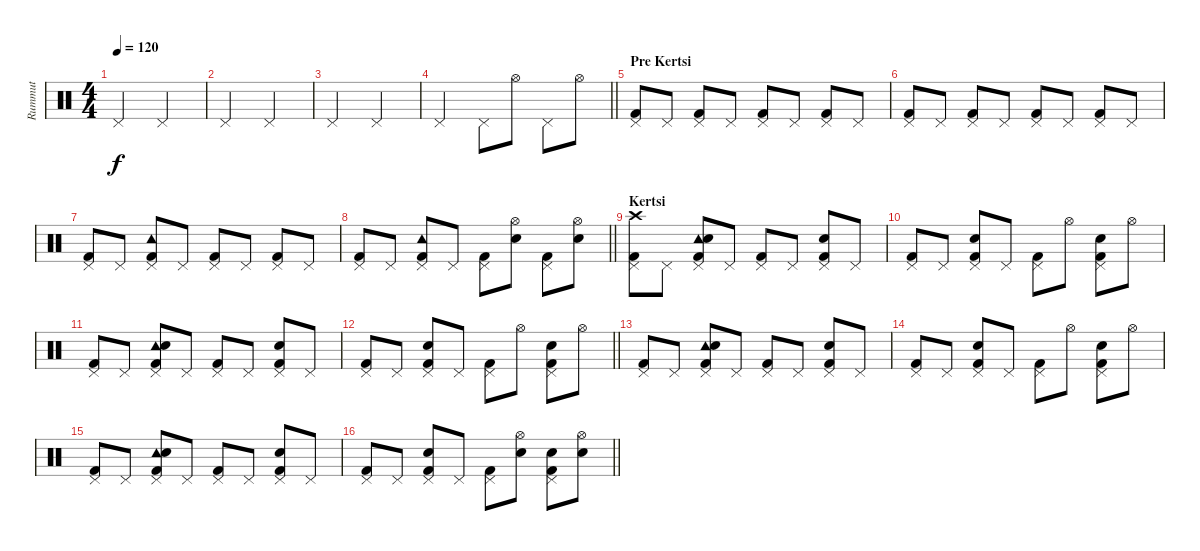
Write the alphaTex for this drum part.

\track ("Rummut" "Rummut") {instrument percussion}
\staff {score}
\articulation defaults
\ts (4 4)
\tempo 120
\clef neutral
\ks c "Pedal Hi-Hat (hit)".2{dy f} "Pedal Hi-Hat (hit)".2
|
"Pedal Hi-Hat (hit)".2 "Pedal Hi-Hat (hit)".2 |
"Pedal Hi-Hat (hit)".2 "Pedal Hi-Hat (hit)".2 |
\barLineRight lightlight "Pedal Hi-Hat (hit)".2 "Pedal Hi-Hat (hit)".8 "Hi-Hat (open)".8 "Pedal Hi-Hat (hit)".8 "Hi-Hat (open)".8
|
\section ("" "Pre Kertsi")
("Pedal Hi-Hat (hit)" "Kick (hit) 2").8 "Pedal Hi-Hat (hit)".8 ("Pedal Hi-Hat (hit)" "Kick (hit) 2").8 "Pedal Hi-Hat (hit)".8 ("Pedal Hi-Hat (hit)" "Kick (hit) 2").8 "Pedal Hi-Hat (hit)".8 ("Pedal Hi-Hat (hit)" "Kick (hit) 2").8 "Pedal Hi-Hat (hit)".8 |
("Pedal Hi-Hat (hit)" "Kick (hit) 2").8 "Pedal Hi-Hat (hit)".8 ("Pedal Hi-Hat (hit)" "Kick (hit) 2").8 "Pedal Hi-Hat (hit)".8 ("Pedal Hi-Hat (hit)" "Kick (hit) 2").8 "Pedal Hi-Hat (hit)".8 ("Pedal Hi-Hat (hit)" "Kick (hit) 2").8 "Pedal Hi-Hat (hit)".8 |
("Pedal Hi-Hat (hit)" "Kick (hit) 2").8 "Pedal Hi-Hat (hit)".8 ("Tambourine (hit)" "Pedal Hi-Hat (hit)" "Kick (hit) 2").8 "Pedal Hi-Hat (hit)".8 ("Pedal Hi-Hat (hit)" "Kick (hit) 2").8 "Pedal Hi-Hat (hit)".8 ("Pedal Hi-Hat (hit)" "Kick (hit) 2").8 "Pedal Hi-Hat (hit)".8 |
\barLineRight lightlight
("Pedal Hi-Hat (hit)" "Kick (hit) 2").8 "Pedal Hi-Hat (hit)".8 ("Tambourine (hit)" "Pedal Hi-Hat (hit)" "Kick (hit) 2").8 "Pedal Hi-Hat (hit)".8 ("Pedal Hi-Hat (hit)" "Kick (hit) 2").8 ("Hi-Hat (open)" "Snare (hit) 2").8 ("Pedal Hi-Hat (hit)" "Kick (hit) 2").8 ("Hi-Hat (open)" "Snare (hit) 2").8 |
\section ("" "Kertsi")
("Crash high (hit)" "Pedal Hi-Hat (hit)" "Kick (hit) 2").8 "Pedal Hi-Hat (hit)".8 ("Tambourine (hit)" "Pedal Hi-Hat (hit)" "Snare (hit) 2" "Kick (hit) 2").8 "Pedal Hi-Hat (hit)".8 ("Pedal Hi-Hat (hit)" "Kick (hit) 2").8 "Pedal Hi-Hat (hit)".8 ("Pedal Hi-Hat (hit)" "Snare (hit) 2" "Kick (hit) 2").8 "Pedal Hi-Hat (hit)".8 |
("Pedal Hi-Hat (hit)" "Kick (hit) 2").8 "Pedal Hi-Hat (hit)".8 ("Pedal Hi-Hat (hit)" "Snare (hit) 2" "Kick (hit) 2").8 "Pedal Hi-Hat (hit)".8 ("Pedal Hi-Hat (hit)" "Kick (hit) 2").8 "Hi-Hat (open)".8 ("Pedal Hi-Hat (hit)" "Snare (hit) 2" "Kick (hit) 2").8 "Hi-Hat (open)".8 |
("Pedal Hi-Hat (hit)" "Kick (hit) 2").8 "Pedal Hi-Hat (hit)".8 ("Tambourine (hit)" "Pedal Hi-Hat (hit)" "Snare (hit) 2" "Kick (hit) 2").8 "Pedal Hi-Hat (hit)".8 ("Pedal Hi-Hat (hit)" "Kick (hit) 2").8 "Pedal Hi-Hat (hit)".8 ("Pedal Hi-Hat (hit)" "Snare (hit) 2" "Kick (hit) 2").8 "Pedal Hi-Hat (hit)".8 |
\barLineRight lightlight
("Pedal Hi-Hat (hit)" "Kick (hit) 2").8 "Pedal Hi-Hat (hit)".8 ("Pedal Hi-Hat (hit)" "Snare (hit) 2" "Kick (hit) 2").8 "Pedal Hi-Hat (hit)".8 ("Pedal Hi-Hat (hit)" "Kick (hit) 2").8 "Hi-Hat (open)".8 ("Pedal Hi-Hat (hit)" "Snare (hit) 2" "Kick (hit) 2").8 "Hi-Hat (open)".8 |
("Pedal Hi-Hat (hit)" "Kick (hit) 2").8 "Pedal Hi-Hat (hit)".8 ("Tambourine (hit)" "Pedal Hi-Hat (hit)" "Snare (hit) 2" "Kick (hit) 2").8 "Pedal Hi-Hat (hit)".8 ("Pedal Hi-Hat (hit)" "Kick (hit) 2").8 "Pedal Hi-Hat (hit)".8 ("Pedal Hi-Hat (hit)" "Snare (hit) 2" "Kick (hit) 2").8 "Pedal Hi-Hat (hit)".8 |
("Pedal Hi-Hat (hit)" "Kick (hit) 2").8 "Pedal Hi-Hat (hit)".8 ("Pedal Hi-Hat (hit)" "Snare (hit) 2" "Kick (hit) 2").8 "Pedal Hi-Hat (hit)".8 ("Pedal Hi-Hat (hit)" "Kick (hit) 2").8 "Hi-Hat (open)".8 ("Pedal Hi-Hat (hit)" "Snare (hit) 2" "Kick (hit) 2").8 "Hi-Hat (open)".8 |
("Pedal Hi-Hat (hit)" "Kick (hit) 2").8 "Pedal Hi-Hat (hit)".8 ("Tambourine (hit)" "Pedal Hi-Hat (hit)" "Snare (hit) 2" "Kick (hit) 2").8 "Pedal Hi-Hat (hit)".8 ("Pedal Hi-Hat (hit)" "Kick (hit) 2").8 "Pedal Hi-Hat (hit)".8 ("Pedal Hi-Hat (hit)" "Snare (hit) 2" "Kick (hit) 2").8 "Pedal Hi-Hat (hit)".8 |
\barLineRight lightlight
("Pedal Hi-Hat (hit)" "Kick (hit) 2").8 "Pedal Hi-Hat (hit)".8 ("Pedal Hi-Hat (hit)" "Snare (hit) 2" "Kick (hit) 2").8 "Pedal Hi-Hat (hit)".8 ("Pedal Hi-Hat (hit)" "Kick (hit) 2").8 ("Hi-Hat (open)" "Snare (hit) 2").8 ("Pedal Hi-Hat (hit)" "Snare (hit) 2" "Kick (hit) 2").8 ("Hi-Hat (open)" "Snare (hit) 2").8
